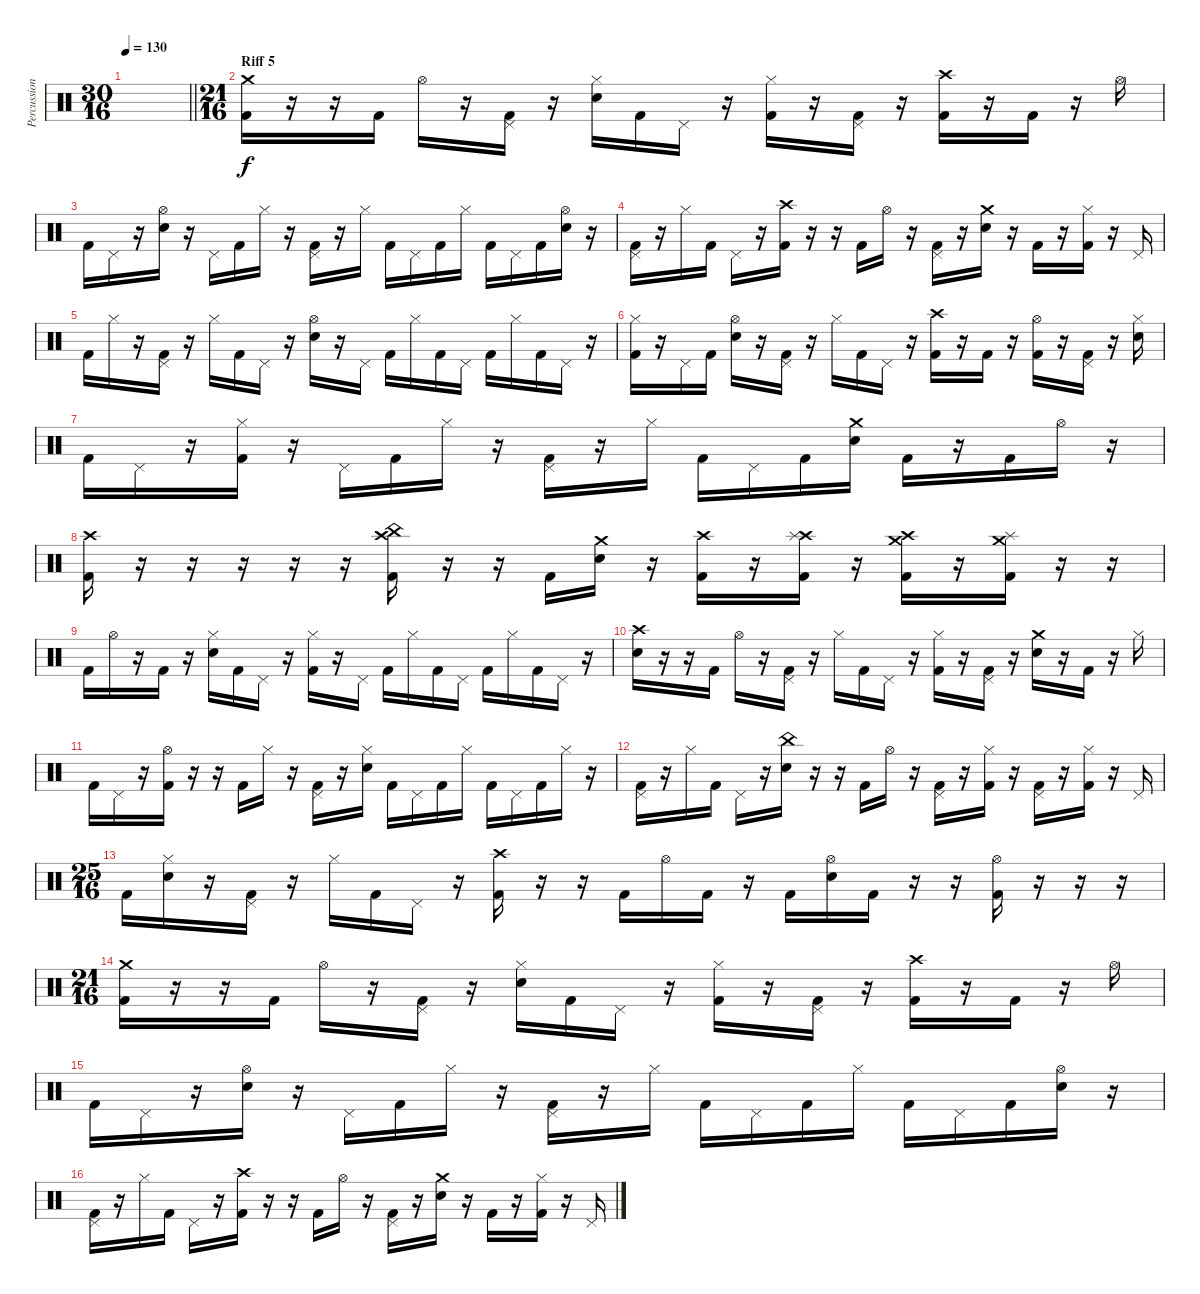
\track ("Percussions" "Percussion") {instrument percussion}
\staff {score}
\articulation defaults
\ts (30 16)
\tempo 130
\clef neutral
\barLineRight lightlight
\ks c
|
\ts (21 16)
\section ("" "Riff 5")
("Crash medium (hit)" "Kick (hit) 2").16 r.16 r.16 "Kick (hit) 2".16 "Hi-Hat (open)".16 r.16 ("Pedal Hi-Hat (hit)" "Kick (hit) 2").16 r.16 ("Hi-Hat (closed)" "Electric Snare (hit)").16 "Kick (hit) 2".16 "Pedal Hi-Hat (hit)".16 r.16 ("Hi-Hat (closed)" "Kick (hit) 2").16 r.16 ("Pedal Hi-Hat (hit)" "Kick (hit) 2").16 r.16 ("Crash high (hit)" "Kick (hit) 2").16 r.16 "Kick (hit) 2".16 r.16 "Hi-Hat (open)".16 |
"Kick (hit) 2".16 "Pedal Hi-Hat (hit)".16 r.16 ("Hi-Hat (open)" "Electric Snare (hit)").16 r.16 "Pedal Hi-Hat (hit)".16 "Kick (hit) 2".16 "Hi-Hat (closed)".16 r.16 ("Pedal Hi-Hat (hit)" "Kick (hit) 2").16 r.16 "Hi-Hat (closed)".16 "Kick (hit) 2".16 "Pedal Hi-Hat (hit)".16 "Kick (hit) 2".16 "Hi-Hat (closed)".16 "Kick (hit) 2".16 "Pedal Hi-Hat (hit)".16 "Kick (hit) 2".16 ("Hi-Hat (open)" "Electric Snare (hit)").16 r.16 |
("Pedal Hi-Hat (hit)" "Kick (hit) 2").16 r.16 "Hi-Hat (closed)".16 "Kick (hit) 2".16 "Pedal Hi-Hat (hit)".16 r.16 ("Crash high (hit)" "Kick (hit) 2").16 r.16 r.16 "Kick (hit) 2".16 "Hi-Hat (open)".16 r.16 ("Pedal Hi-Hat (hit)" "Kick (hit) 2").16 r.16 ("Crash medium (hit)" "Electric Snare (hit)").16 r.16 "Kick (hit) 2".16 r.16 ("Hi-Hat (closed)" "Kick (hit) 2").16 r.16 "Pedal Hi-Hat (hit)".16 |
"Kick (hit) 2".16 "Hi-Hat (closed)".16 r.16 ("Pedal Hi-Hat (hit)" "Kick (hit) 2").16 r.16 "Hi-Hat (closed)".16 "Kick (hit) 2".16 "Pedal Hi-Hat (hit)".16 r.16 ("Hi-Hat (open)" "Electric Snare (hit)").16 r.16 "Pedal Hi-Hat (hit)".16 "Kick (hit) 2".16 "Hi-Hat (closed)".16 "Kick (hit) 2".16 "Pedal Hi-Hat (hit)".16 "Kick (hit) 2".16 "Hi-Hat (closed)".16 "Kick (hit) 2".16 "Pedal Hi-Hat (hit)".16 r.16 |
("Hi-Hat (closed)" "Kick (hit) 2").16 r.16 "Pedal Hi-Hat (hit)".16 "Kick (hit) 2".16 ("Hi-Hat (open)" "Electric Snare (hit)").16 r.16 ("Pedal Hi-Hat (hit)" "Kick (hit) 2").16 r.16 "Hi-Hat (closed)".16 "Kick (hit) 2".16 "Pedal Hi-Hat (hit)".16 r.16 ("Crash high (hit)" "Kick (hit) 2").16 r.16 "Kick (hit) 2".16 r.16 ("Hi-Hat (open)" "Kick (hit) 2").16 r.16 ("Pedal Hi-Hat (hit)" "Kick (hit) 2").16 r.16 ("Hi-Hat (closed)" "Electric Snare (hit)").16 |
"Kick (hit) 2".16 "Pedal Hi-Hat (hit)".16 r.16 ("Hi-Hat (closed)" "Kick (hit) 2").16 r.16 "Pedal Hi-Hat (hit)".16 "Kick (hit) 2".16 "Hi-Hat (closed)".16 r.16 ("Pedal Hi-Hat (hit)" "Kick (hit) 2").16 r.16 "Hi-Hat (closed)".16 "Kick (hit) 2".16 "Pedal Hi-Hat (hit)".16 "Kick (hit) 2".16 ("Crash medium (hit)" "Electric Snare (hit)").16 "Kick (hit) 2".16 r.16 "Kick (hit) 2".16 "Hi-Hat (open)".16 r.16 |
("Crash high (hit)" "Kick (hit) 2").16 r.16 r.16 r.16 r.16 r.16 ("Crash high (hit)" "China (hit)" "Kick (hit) 2").16 r.16 r.16 "Kick (hit) 2".16 ("Crash medium (hit)" "Electric Snare (hit)").16 r.16 ("Crash high (hit)" "Kick (hit) 2").16 r.16 ("Crash high (hit)" "Splash (hit)" "Kick (hit) 2").16 r.16 ("Crash high (hit)" "Crash medium (hit)" "Kick (hit) 2").16 r.16 ("Crash medium (hit)" "Splash (hit)" "Kick (hit) 2").16 r.16 r.16 |
"Kick (hit) 2".16 "Hi-Hat (open)".16 r.16 "Kick (hit) 2".16 r.16 ("Hi-Hat (closed)" "Electric Snare (hit)").16 "Kick (hit) 2".16 "Pedal Hi-Hat (hit)".16 r.16 ("Hi-Hat (closed)" "Kick (hit) 2").16 r.16 "Pedal Hi-Hat (hit)".16 "Kick (hit) 2".16 "Hi-Hat (closed)".16 "Kick (hit) 2".16 "Pedal Hi-Hat (hit)".16 "Kick (hit) 2".16 "Hi-Hat (closed)".16 "Kick (hit) 2".16 "Pedal Hi-Hat (hit)".16 r.16 |
("Crash high (hit)" "Electric Snare (hit)").16 r.16 r.16 "Kick (hit) 2".16 "Hi-Hat (open)".16 r.16 ("Pedal Hi-Hat (hit)" "Kick (hit) 2").16 r.16 "Hi-Hat (closed)".16 "Kick (hit) 2".16 "Pedal Hi-Hat (hit)".16 r.16 ("Hi-Hat (closed)" "Kick (hit) 2").16 r.16 ("Pedal Hi-Hat (hit)" "Kick (hit) 2").16 r.16 ("Crash medium (hit)" "Electric Snare (hit)").16 r.16 "Kick (hit) 2".16 r.16 "Hi-Hat (closed)".16 |
"Kick (hit) 2".16 "Pedal Hi-Hat (hit)".16 r.16 ("Hi-Hat (open)" "Kick (hit) 2").16 r.16 r.16 "Kick (hit) 2".16 "Hi-Hat (closed)".16 r.16 ("Pedal Hi-Hat (hit)" "Kick (hit) 2").16 r.16 ("Hi-Hat (closed)" "Electric Snare (hit)").16 "Kick (hit) 2".16 "Pedal Hi-Hat (hit)".16 "Kick (hit) 2".16 "Hi-Hat (closed)".16 "Kick (hit) 2".16 "Pedal Hi-Hat (hit)".16 "Kick (hit) 2".16 "Hi-Hat (closed)".16 r.16 |
("Pedal Hi-Hat (hit)" "Kick (hit) 2").16 r.16 "Hi-Hat (closed)".16 "Kick (hit) 2".16 "Pedal Hi-Hat (hit)".16 r.16 ("China (hit)" "Electric Snare (hit)").16 r.16 r.16 "Kick (hit) 2".16 "Hi-Hat (open)".16 r.16 ("Pedal Hi-Hat (hit)" "Kick (hit) 2").16 r.16 ("Hi-Hat (closed)" "Kick (hit) 2").16 r.16 ("Pedal Hi-Hat (hit)" "Kick (hit) 2").16 r.16 ("Hi-Hat (closed)" "Kick (hit) 2").16 r.16 "Pedal Hi-Hat (hit)".16 |
\ts (25 16)
"Kick (hit) 2".16 ("Hi-Hat (closed)" "Electric Snare (hit)").16 r.16 ("Pedal Hi-Hat (hit)" "Kick (hit) 2").16 r.16 "Hi-Hat (closed)".16 "Kick (hit) 2".16 "Pedal Hi-Hat (hit)".16 r.16 ("Crash high (hit)" "Kick (hit) 2").16 r.16 r.16 "Kick (hit) 2".16 "Hi-Hat (open)".16 "Kick (hit) 2".16 r.16 "Kick (hit) 2".16 ("Hi-Hat (open)" "Electric Snare (hit)").16 "Kick (hit) 2".16 r.16 r.16 ("Hi-Hat (open)" "Kick (hit) 2").16 r.16 r.16 r.16 |
\ts (21 16)
("Crash medium (hit)" "Kick (hit) 2").16 r.16 r.16 "Kick (hit) 2".16 "Hi-Hat (open)".16 r.16 ("Pedal Hi-Hat (hit)" "Kick (hit) 2").16 r.16 ("Hi-Hat (closed)" "Electric Snare (hit)").16 "Kick (hit) 2".16 "Pedal Hi-Hat (hit)".16 r.16 ("Hi-Hat (closed)" "Kick (hit) 2").16 r.16 ("Pedal Hi-Hat (hit)" "Kick (hit) 2").16 r.16 ("Crash high (hit)" "Kick (hit) 2").16 r.16 "Kick (hit) 2".16 r.16 "Hi-Hat (open)".16 |
"Kick (hit) 2".16 "Pedal Hi-Hat (hit)".16 r.16 ("Hi-Hat (open)" "Electric Snare (hit)").16 r.16 "Pedal Hi-Hat (hit)".16 "Kick (hit) 2".16 "Hi-Hat (closed)".16 r.16 ("Pedal Hi-Hat (hit)" "Kick (hit) 2").16 r.16 "Hi-Hat (closed)".16 "Kick (hit) 2".16 "Pedal Hi-Hat (hit)".16 "Kick (hit) 2".16 "Hi-Hat (closed)".16 "Kick (hit) 2".16 "Pedal Hi-Hat (hit)".16 "Kick (hit) 2".16 ("Hi-Hat (open)" "Electric Snare (hit)").16 r.16 |
("Pedal Hi-Hat (hit)" "Kick (hit) 2").16 r.16 "Hi-Hat (closed)".16 "Kick (hit) 2".16 "Pedal Hi-Hat (hit)".16 r.16 ("Crash high (hit)" "Kick (hit) 2").16 r.16 r.16 "Kick (hit) 2".16 "Hi-Hat (open)".16 r.16 ("Pedal Hi-Hat (hit)" "Kick (hit) 2").16 r.16 ("Crash medium (hit)" "Electric Snare (hit)").16 r.16 "Kick (hit) 2".16 r.16 ("Hi-Hat (closed)" "Kick (hit) 2").16 r.16 "Pedal Hi-Hat (hit)".16
